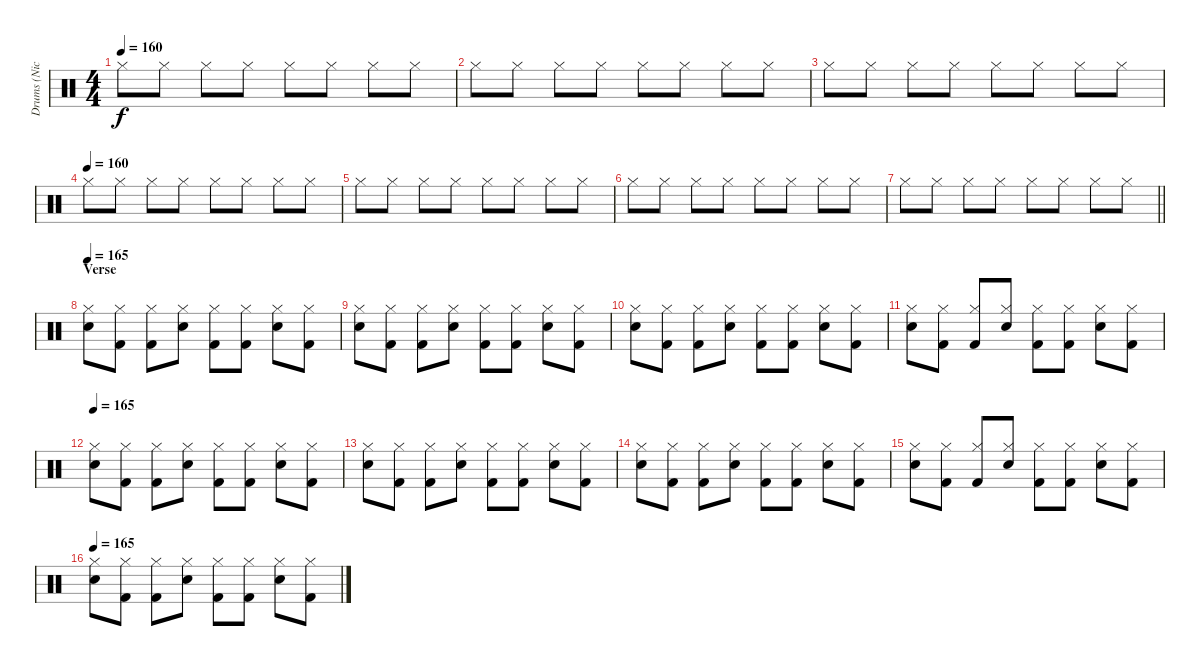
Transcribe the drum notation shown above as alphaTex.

\track ("Drums (Nicko McBrain)" "Drums (Nic") {instrument percussion}
\staff {score}
\articulation defaults
\ts (4 4)
\tempo 160
\clef neutral
\ks c "Hi-Hat (closed)".8{dy f} "Hi-Hat (closed)".8 "Hi-Hat (closed)".8 "Hi-Hat (closed)".8 "Hi-Hat (closed)".8 "Hi-Hat (closed)".8 "Hi-Hat (closed)".8 "Hi-Hat (closed)".8
|
"Hi-Hat (closed)".8 "Hi-Hat (closed)".8 "Hi-Hat (closed)".8 "Hi-Hat (closed)".8 "Hi-Hat (closed)".8 "Hi-Hat (closed)".8 "Hi-Hat (closed)".8 "Hi-Hat (closed)".8 |
"Hi-Hat (closed)".8 "Hi-Hat (closed)".8 "Hi-Hat (closed)".8 "Hi-Hat (closed)".8 "Hi-Hat (closed)".8 "Hi-Hat (closed)".8 "Hi-Hat (closed)".8 "Hi-Hat (closed)".8 |
\tempo (160)
"Hi-Hat (closed)".8 "Hi-Hat (closed)".8 "Hi-Hat (closed)".8 "Hi-Hat (closed)".8 "Hi-Hat (closed)".8 "Hi-Hat (closed)".8 "Hi-Hat (closed)".8 "Hi-Hat (closed)".8 |
"Hi-Hat (closed)".8 "Hi-Hat (closed)".8 "Hi-Hat (closed)".8 "Hi-Hat (closed)".8 "Hi-Hat (closed)".8 "Hi-Hat (closed)".8 "Hi-Hat (closed)".8 "Hi-Hat (closed)".8 |
"Hi-Hat (closed)".8 "Hi-Hat (closed)".8 "Hi-Hat (closed)".8 "Hi-Hat (closed)".8 "Hi-Hat (closed)".8 "Hi-Hat (closed)".8 "Hi-Hat (closed)".8 "Hi-Hat (closed)".8 |
\barLineRight lightlight "Hi-Hat (closed)".8 "Hi-Hat (closed)".8 "Hi-Hat (closed)".8 "Hi-Hat (closed)".8 "Hi-Hat (closed)".8 "Hi-Hat (closed)".8 "Hi-Hat (closed)".8 "Hi-Hat (closed)".8
|
\section ("" "Verse")
\tempo 165
("Hi-Hat (closed)" "Electric Snare (hit)").8 ("Hi-Hat (closed)" "Kick (hit) 2").8 ("Hi-Hat (closed)" "Kick (hit) 2").8 ("Hi-Hat (closed)" "Electric Snare (hit)").8 ("Hi-Hat (closed)" "Kick (hit) 2").8 ("Hi-Hat (closed)" "Kick (hit) 2").8 ("Hi-Hat (closed)" "Electric Snare (hit)").8 ("Hi-Hat (closed)" "Kick (hit) 2").8 |
("Hi-Hat (closed)" "Electric Snare (hit)").8 ("Hi-Hat (closed)" "Kick (hit) 2").8 ("Hi-Hat (closed)" "Kick (hit) 2").8 ("Hi-Hat (closed)" "Electric Snare (hit)").8 ("Hi-Hat (closed)" "Kick (hit) 2").8 ("Hi-Hat (closed)" "Kick (hit) 2").8 ("Hi-Hat (closed)" "Electric Snare (hit)").8 ("Hi-Hat (closed)" "Kick (hit) 2").8 |
("Hi-Hat (closed)" "Electric Snare (hit)").8 ("Hi-Hat (closed)" "Kick (hit) 2").8 ("Hi-Hat (closed)" "Kick (hit) 2").8 ("Hi-Hat (closed)" "Electric Snare (hit)").8 ("Hi-Hat (closed)" "Kick (hit) 2").8 ("Hi-Hat (closed)" "Kick (hit) 2").8 ("Hi-Hat (closed)" "Electric Snare (hit)").8 ("Hi-Hat (closed)" "Kick (hit) 2").8 |
("Hi-Hat (closed)" "Electric Snare (hit)").8 ("Hi-Hat (closed)" "Kick (hit) 2").8 ("Hi-Hat (closed)" "Kick (hit) 2").8{beam Up} ("Hi-Hat (closed)" "Electric Snare (hit)").8{beam Up} ("Hi-Hat (closed)" "Kick (hit) 2").8 ("Hi-Hat (closed)" "Kick (hit) 2").8 ("Hi-Hat (closed)" "Electric Snare (hit)").8 ("Hi-Hat (closed)" "Kick (hit) 2").8 |
\tempo 165
("Hi-Hat (closed)" "Electric Snare (hit)").8 ("Hi-Hat (closed)" "Kick (hit) 2").8 ("Hi-Hat (closed)" "Kick (hit) 2").8 ("Hi-Hat (closed)" "Electric Snare (hit)").8 ("Hi-Hat (closed)" "Kick (hit) 2").8 ("Hi-Hat (closed)" "Kick (hit) 2").8 ("Hi-Hat (closed)" "Electric Snare (hit)").8 ("Hi-Hat (closed)" "Kick (hit) 2").8 |
("Hi-Hat (closed)" "Electric Snare (hit)").8 ("Hi-Hat (closed)" "Kick (hit) 2").8 ("Hi-Hat (closed)" "Kick (hit) 2").8 ("Hi-Hat (closed)" "Electric Snare (hit)").8 ("Hi-Hat (closed)" "Kick (hit) 2").8 ("Hi-Hat (closed)" "Kick (hit) 2").8 ("Hi-Hat (closed)" "Electric Snare (hit)").8 ("Hi-Hat (closed)" "Kick (hit) 2").8 |
("Hi-Hat (closed)" "Electric Snare (hit)").8 ("Hi-Hat (closed)" "Kick (hit) 2").8 ("Hi-Hat (closed)" "Kick (hit) 2").8 ("Hi-Hat (closed)" "Electric Snare (hit)").8 ("Hi-Hat (closed)" "Kick (hit) 2").8 ("Hi-Hat (closed)" "Kick (hit) 2").8 ("Hi-Hat (closed)" "Electric Snare (hit)").8 ("Hi-Hat (closed)" "Kick (hit) 2").8 |
("Hi-Hat (closed)" "Electric Snare (hit)").8 ("Hi-Hat (closed)" "Kick (hit) 2").8 ("Hi-Hat (closed)" "Kick (hit) 2").8{beam Up} ("Hi-Hat (closed)" "Electric Snare (hit)").8{beam Up} ("Hi-Hat (closed)" "Kick (hit) 2").8 ("Hi-Hat (closed)" "Kick (hit) 2").8 ("Hi-Hat (closed)" "Electric Snare (hit)").8 ("Hi-Hat (closed)" "Kick (hit) 2").8 |
\tempo 165
("Hi-Hat (closed)" "Electric Snare (hit)").8 ("Hi-Hat (closed)" "Kick (hit) 2").8 ("Hi-Hat (closed)" "Kick (hit) 2").8 ("Hi-Hat (closed)" "Electric Snare (hit)").8 ("Hi-Hat (closed)" "Kick (hit) 2").8 ("Hi-Hat (closed)" "Kick (hit) 2").8 ("Hi-Hat (closed)" "Electric Snare (hit)").8 ("Hi-Hat (closed)" "Kick (hit) 2").8
